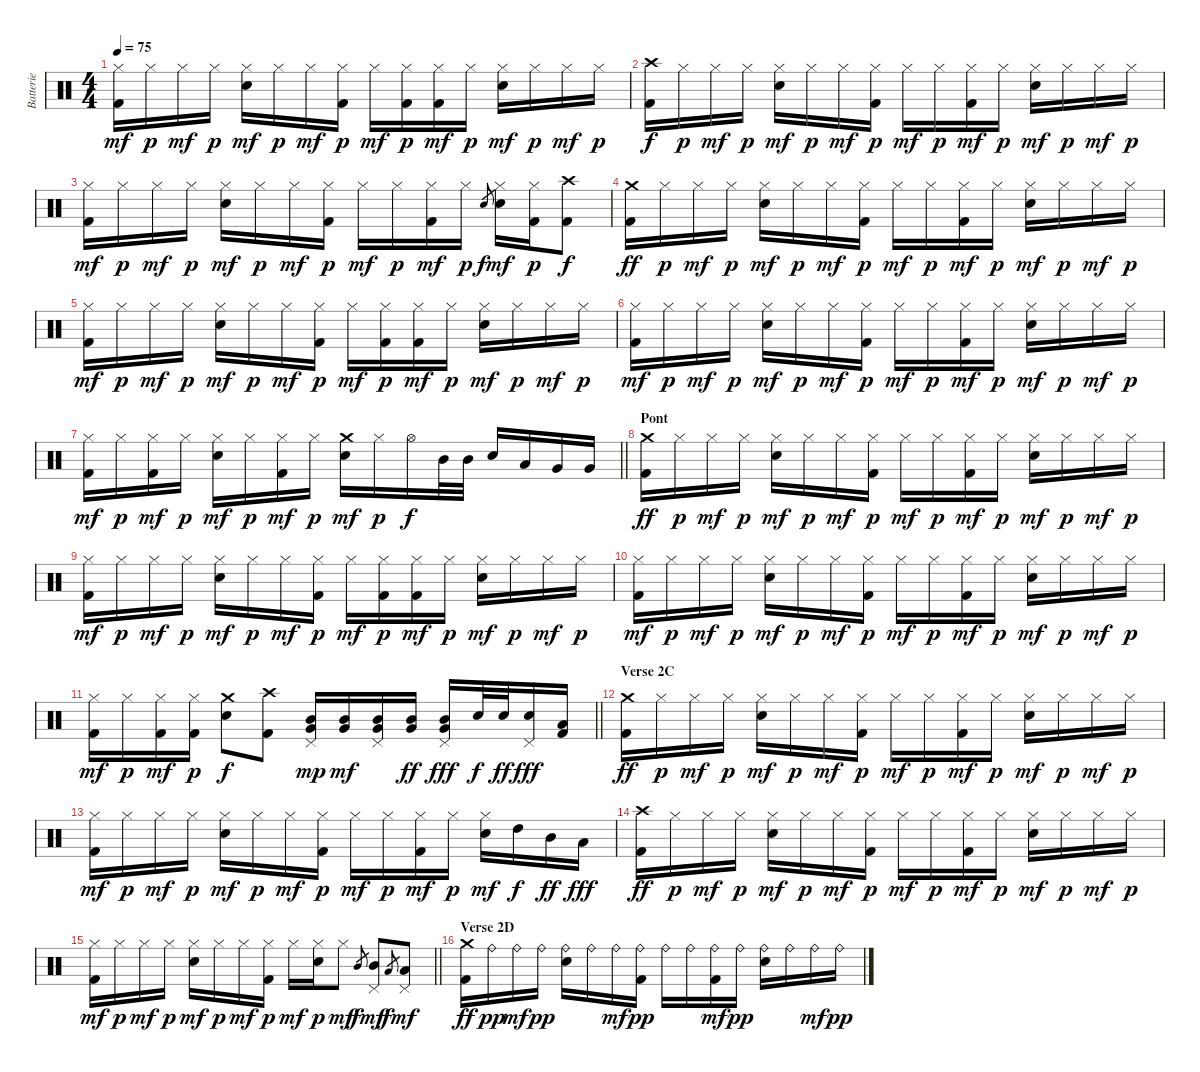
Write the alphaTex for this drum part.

\track ("Batterie" "Batterie") {instrument percussion}
\staff {score}
\articulation defaults
\ts (4 4)
\tempo 75
\clef neutral
\ks c
("Hi-Hat (closed)" "Kick (hit) 2").16{dy mf} "Hi-Hat (closed)".16{dy p} "Hi-Hat (closed)".16{dy mf} "Hi-Hat (closed)".16{dy p} ("Hi-Hat (closed)" "Electric Snare (hit)").16{dy mf} "Hi-Hat (closed)".16{dy p} "Hi-Hat (closed)".16{dy mf} ("Hi-Hat (closed)" "Kick (hit) 2").16{dy p} "Hi-Hat (closed)".16{dy mf} ("Hi-Hat (closed)" "Kick (hit) 2").16{dy p} ("Hi-Hat (closed)" "Kick (hit) 2").16{dy mf} "Hi-Hat (closed)".16{dy p} ("Hi-Hat (closed)" "Electric Snare (hit)").16{dy mf} "Hi-Hat (closed)".16{dy p} "Hi-Hat (closed)".16{dy mf} "Hi-Hat (closed)".16{dy p} |
("Crash high (hit)" "Kick (hit) 2").16{dy f} "Hi-Hat (closed)".16{dy p} "Hi-Hat (closed)".16{dy mf} "Hi-Hat (closed)".16{dy p} ("Hi-Hat (closed)" "Electric Snare (hit)").16{dy mf} "Hi-Hat (closed)".16{dy p} "Hi-Hat (closed)".16{dy mf} ("Hi-Hat (closed)" "Kick (hit) 2").16{dy p} "Hi-Hat (closed)".16{dy mf} "Hi-Hat (closed)".16{dy p} ("Hi-Hat (closed)" "Kick (hit) 2").16{dy mf} "Hi-Hat (closed)".16{dy p} ("Hi-Hat (closed)" "Electric Snare (hit)").16{dy mf} "Hi-Hat (closed)".16{dy p} "Hi-Hat (closed)".16{dy mf} "Hi-Hat (closed)".16{dy p} |
("Hi-Hat (closed)" "Kick (hit) 2").16{dy mf} "Hi-Hat (closed)".16{dy p} "Hi-Hat (closed)".16{dy mf} "Hi-Hat (closed)".16{dy p} ("Hi-Hat (closed)" "Electric Snare (hit)").16{dy mf} "Hi-Hat (closed)".16{dy p} "Hi-Hat (closed)".16{dy mf} ("Hi-Hat (closed)" "Kick (hit) 2").16{dy p} "Hi-Hat (closed)".16{dy mf} "Hi-Hat (closed)".16{dy p} ("Hi-Hat (closed)" "Kick (hit) 2").16{dy mf} "Hi-Hat (closed)".16{dy p} "Electric Snare (hit)".8{gr dy f} ("Hi-Hat (closed)" "Electric Snare (hit)").16{dy mf} ("Hi-Hat (closed)" "Kick (hit) 2").16{dy p} ("Crash high (hit)" "Kick (hit) 2").8{dy f} |
("Crash medium (hit)" "Kick (hit) 2").16{dy ff} "Hi-Hat (closed)".16{dy p} "Hi-Hat (closed)".16{dy mf} "Hi-Hat (closed)".16{dy p} ("Hi-Hat (closed)" "Electric Snare (hit)").16{dy mf} "Hi-Hat (closed)".16{dy p} "Hi-Hat (closed)".16{dy mf} ("Hi-Hat (closed)" "Kick (hit) 2").16{dy p} "Hi-Hat (closed)".16{dy mf} "Hi-Hat (closed)".16{dy p} ("Hi-Hat (closed)" "Kick (hit) 2").16{dy mf} "Hi-Hat (closed)".16{dy p} ("Hi-Hat (closed)" "Electric Snare (hit)").16{dy mf} "Hi-Hat (closed)".16{dy p} "Hi-Hat (closed)".16{dy mf} "Hi-Hat (closed)".16{dy p} |
("Hi-Hat (closed)" "Kick (hit) 2").16{dy mf} "Hi-Hat (closed)".16{dy p} "Hi-Hat (closed)".16{dy mf} "Hi-Hat (closed)".16{dy p} ("Hi-Hat (closed)" "Electric Snare (hit)").16{dy mf} "Hi-Hat (closed)".16{dy p} "Hi-Hat (closed)".16{dy mf} ("Hi-Hat (closed)" "Kick (hit) 2").16{dy p} "Hi-Hat (closed)".16{dy mf} ("Hi-Hat (closed)" "Kick (hit) 2").16{dy p} ("Hi-Hat (closed)" "Kick (hit) 2").16{dy mf} "Hi-Hat (closed)".16{dy p} ("Hi-Hat (closed)" "Electric Snare (hit)").16{dy mf} "Hi-Hat (closed)".16{dy p} "Hi-Hat (closed)".16{dy mf} "Hi-Hat (closed)".16{dy p} |
("Hi-Hat (closed)" "Kick (hit) 2").16{dy mf} "Hi-Hat (closed)".16{dy p} "Hi-Hat (closed)".16{dy mf} "Hi-Hat (closed)".16{dy p} ("Hi-Hat (closed)" "Electric Snare (hit)").16{dy mf} "Hi-Hat (closed)".16{dy p} "Hi-Hat (closed)".16{dy mf} ("Hi-Hat (closed)" "Kick (hit) 2").16{dy p} "Hi-Hat (closed)".16{dy mf} "Hi-Hat (closed)".16{dy p} ("Hi-Hat (closed)" "Kick (hit) 2").16{dy mf} "Hi-Hat (closed)".16{dy p} ("Hi-Hat (closed)" "Electric Snare (hit)").16{dy mf} "Hi-Hat (closed)".16{dy p} "Hi-Hat (closed)".16{dy mf} "Hi-Hat (closed)".16{dy p} |
\barLineRight lightlight
("Hi-Hat (closed)" "Kick (hit) 2").16{dy mf} "Hi-Hat (closed)".16{dy p} ("Hi-Hat (closed)" "Kick (hit) 2").16{dy mf} "Hi-Hat (closed)".16{dy p} ("Hi-Hat (closed)" "Electric Snare (hit)").16{dy mf} "Hi-Hat (closed)".16{dy p} ("Hi-Hat (closed)" "Kick (hit) 2").16{dy mf} "Hi-Hat (closed)".16{dy p} ("Crash medium (hit)" "Electric Snare (hit)").16{dy mf} "Hi-Hat (closed)".16{dy p} "Hi-Hat (open)".16{dy f} "Mid Tom (hit)".32 "Mid Tom (hit)".32 "Electric Snare (hit)".16 "Low Tom (hit)".16 "Very Low Tom (hit)".16 "Very Low Tom (hit)".16 |
\section ("" "Pont")
("Crash medium (hit)" "Kick (hit) 2").16{dy ff} "Hi-Hat (closed)".16{dy p} "Hi-Hat (closed)".16{dy mf} "Hi-Hat (closed)".16{dy p} ("Hi-Hat (closed)" "Electric Snare (hit)").16{dy mf} "Hi-Hat (closed)".16{dy p} "Hi-Hat (closed)".16{dy mf} ("Hi-Hat (closed)" "Kick (hit) 2").16{dy p} "Hi-Hat (closed)".16{dy mf} "Hi-Hat (closed)".16{dy p} ("Hi-Hat (closed)" "Kick (hit) 2").16{dy mf} "Hi-Hat (closed)".16{dy p} ("Hi-Hat (closed)" "Electric Snare (hit)").16{dy mf} "Hi-Hat (closed)".16{dy p} "Hi-Hat (closed)".16{dy mf} "Hi-Hat (closed)".16{dy p} |
("Hi-Hat (closed)" "Kick (hit) 2").16{dy mf} "Hi-Hat (closed)".16{dy p} "Hi-Hat (closed)".16{dy mf} "Hi-Hat (closed)".16{dy p} ("Hi-Hat (closed)" "Electric Snare (hit)").16{dy mf} "Hi-Hat (closed)".16{dy p} "Hi-Hat (closed)".16{dy mf} ("Hi-Hat (closed)" "Kick (hit) 2").16{dy p} "Hi-Hat (closed)".16{dy mf} ("Hi-Hat (closed)" "Kick (hit) 2").16{dy p} ("Hi-Hat (closed)" "Kick (hit) 2").16{dy mf} "Hi-Hat (closed)".16{dy p} ("Hi-Hat (closed)" "Electric Snare (hit)").16{dy mf} "Hi-Hat (closed)".16{dy p} "Hi-Hat (closed)".16{dy mf} "Hi-Hat (closed)".16{dy p} |
("Hi-Hat (closed)" "Kick (hit) 2").16{dy mf} "Hi-Hat (closed)".16{dy p} "Hi-Hat (closed)".16{dy mf} "Hi-Hat (closed)".16{dy p} ("Hi-Hat (closed)" "Electric Snare (hit)").16{dy mf} "Hi-Hat (closed)".16{dy p} "Hi-Hat (closed)".16{dy mf} ("Hi-Hat (closed)" "Kick (hit) 2").16{dy p} "Hi-Hat (closed)".16{dy mf} "Hi-Hat (closed)".16{dy p} ("Hi-Hat (closed)" "Kick (hit) 2").16{dy mf} "Hi-Hat (closed)".16{dy p} ("Hi-Hat (closed)" "Electric Snare (hit)").16{dy mf} "Hi-Hat (closed)".16{dy p} "Hi-Hat (closed)".16{dy mf} "Hi-Hat (closed)".16{dy p} |
\barLineRight lightlight
("Hi-Hat (closed)" "Kick (hit) 2").16{dy mf} "Hi-Hat (closed)".16{dy p} ("Hi-Hat (closed)" "Kick (hit) 2").16{dy mf} ("Hi-Hat (closed)" "Kick (hit) 2").16{dy p} ("Crash medium (hit)" "Electric Snare (hit)").8{dy f} ("Crash high (hit)" "Kick (hit) 2").8 ("Pedal Hi-Hat (hit)" "Mid Tom (hit)" "Very Low Tom (hit)").16{dy mp} ("Mid Tom (hit)" "Very Low Tom (hit)").16{dy mf} ("Pedal Hi-Hat (hit)" "Mid Tom (hit)" "Very Low Tom (hit)").16 ("Mid Tom (hit)" "Very Low Tom (hit)").16{dy ff} ("Pedal Hi-Hat (hit)" "Mid Tom (hit)" "Very Low Tom (hit)").16{dy fff} "Electric Snare (hit)".32{dy f} "Electric Snare (hit)".32{dy ff} ("Pedal Hi-Hat (hit)" "Electric Snare (hit)").16{dy fff} ("Low Tom (hit)" "Kick (hit) 2").16 |
\section ("" "Verse 2C")
("Crash medium (hit)" "Kick (hit) 2").16{dy ff} "Hi-Hat (closed)".16{dy p} "Hi-Hat (closed)".16{dy mf} "Hi-Hat (closed)".16{dy p} ("Hi-Hat (closed)" "Electric Snare (hit)").16{dy mf} "Hi-Hat (closed)".16{dy p} "Hi-Hat (closed)".16{dy mf} ("Hi-Hat (closed)" "Kick (hit) 2").16{dy p} "Hi-Hat (closed)".16{dy mf} "Hi-Hat (closed)".16{dy p} ("Hi-Hat (closed)" "Kick (hit) 2").16{dy mf} "Hi-Hat (closed)".16{dy p} ("Hi-Hat (closed)" "Electric Snare (hit)").16{dy mf} "Hi-Hat (closed)".16{dy p} "Hi-Hat (closed)".16{dy mf} "Hi-Hat (closed)".16{dy p} |
("Hi-Hat (closed)" "Kick (hit) 2").16{dy mf} "Hi-Hat (closed)".16{dy p} "Hi-Hat (closed)".16{dy mf} "Hi-Hat (closed)".16{dy p} ("Hi-Hat (closed)" "Electric Snare (hit)").16{dy mf} "Hi-Hat (closed)".16{dy p} "Hi-Hat (closed)".16{dy mf} ("Hi-Hat (closed)" "Kick (hit) 2").16{dy p} "Hi-Hat (closed)".16{dy mf} "Hi-Hat (closed)".16{dy p} ("Hi-Hat (closed)" "Kick (hit) 2").16{dy mf} "Hi-Hat (closed)".16{dy p} ("Hi-Hat (closed)" "Electric Snare (hit)").16{dy mf} "High Tom (hit)".16{dy f} "Mid Tom (hit)".16{dy ff} "Low Tom (hit)".16{dy fff} |
("Crash high (hit)" "Kick (hit) 2").16{dy ff} "Hi-Hat (closed)".16{dy p} "Hi-Hat (closed)".16{dy mf} "Hi-Hat (closed)".16{dy p} ("Hi-Hat (closed)" "Electric Snare (hit)").16{dy mf} "Hi-Hat (closed)".16{dy p} "Hi-Hat (closed)".16{dy mf} ("Hi-Hat (closed)" "Kick (hit) 2").16{dy p} "Hi-Hat (closed)".16{dy mf} "Hi-Hat (closed)".16{dy p} ("Hi-Hat (closed)" "Kick (hit) 2").16{dy mf} "Hi-Hat (closed)".16{dy p} ("Hi-Hat (closed)" "Electric Snare (hit)").16{dy mf} "Hi-Hat (closed)".16{dy p} "Hi-Hat (closed)".16{dy mf} "Hi-Hat (closed)".16{dy p} |
\barLineRight lightlight
("Hi-Hat (closed)" "Kick (hit) 2").16{dy mf} "Hi-Hat (closed)".16{dy p} "Hi-Hat (closed)".16{dy mf} "Hi-Hat (closed)".16{dy p} ("Hi-Hat (closed)" "Electric Snare (hit)").16{dy mf} "Hi-Hat (closed)".16{dy p} "Hi-Hat (closed)".16{dy mf} ("Hi-Hat (closed)" "Kick (hit) 2").16{dy p} "Hi-Hat (closed)".16{dy mf} ("Hi-Hat (closed)" "Electric Snare (hit)").16{dy p} "Hi-Hat (closed)".8{dy mf} "Mid Tom (hit)".8{gr dy f} ("Pedal Hi-Hat (hit)" "Mid Tom (hit)").8{dy mf} "Low Tom (hit)".8{gr dy f} ("Pedal Hi-Hat (hit)" "Low Tom (hit)").8{dy mf} |
\section ("" "Verse 2D")
("Crash medium (hit)" "Kick (hit) 2").16{dy ff} "Ride (bell)".16{dy pp} "Ride (bell)".16{dy mf} "Ride (bell)".16{dy pp} ("Ride (bell)" "Electric Snare (hit)").16 "Ride (bell)".16 "Ride (bell)".16{dy mf} ("Ride (bell)" "Kick (hit) 2").16{dy pp} "Ride (bell)".16 "Ride (bell)".16 ("Ride (bell)" "Kick (hit) 2").16{dy mf} "Ride (bell)".16{dy pp} ("Ride (bell)" "Electric Snare (hit)").16 "Ride (bell)".16 "Ride (bell)".16{dy mf} "Ride (bell)".16{dy pp}
